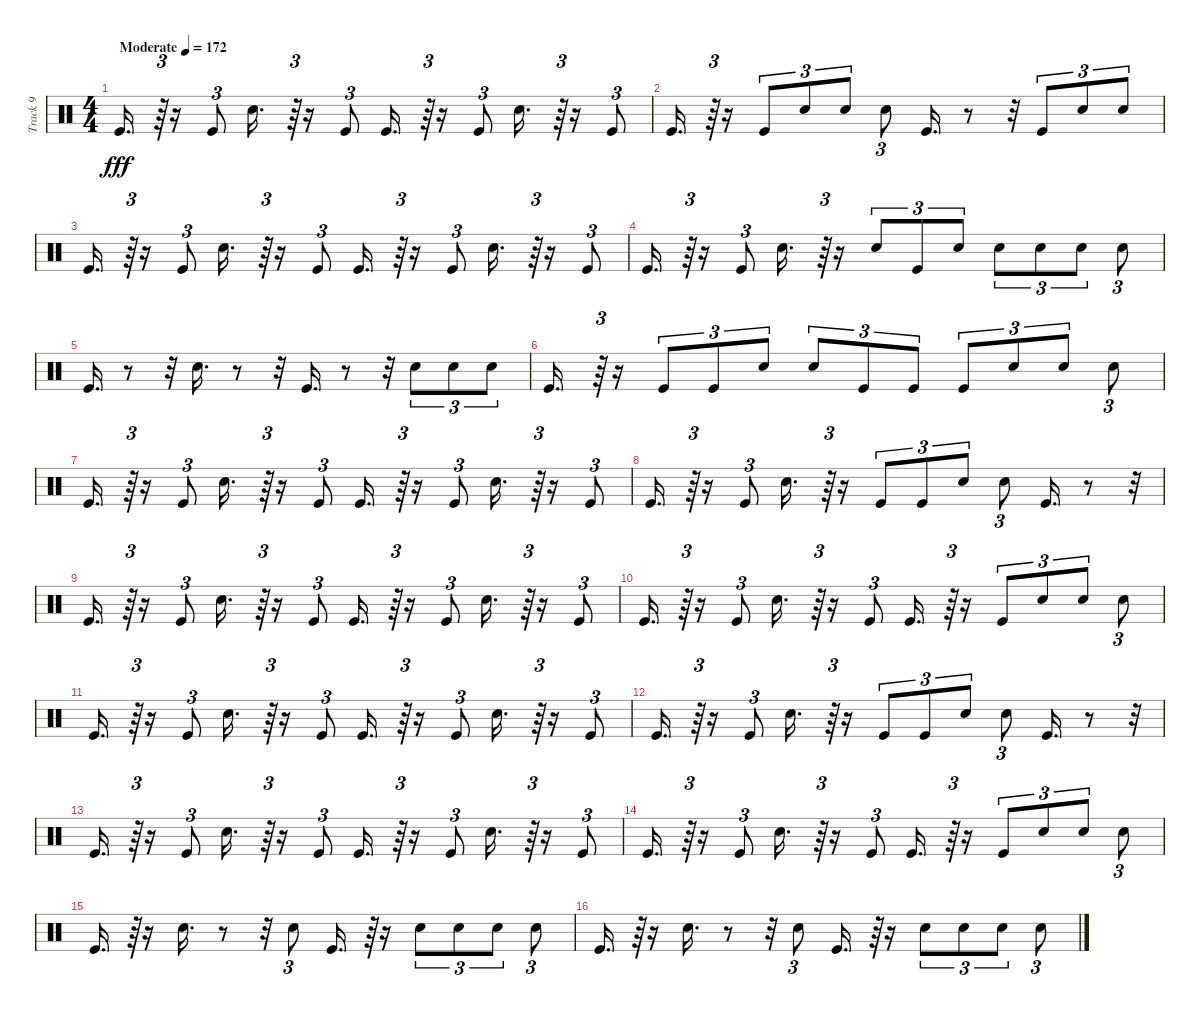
\track ("Track 9" "Track 9") {instrument percussion}
\staff {score}
\articulation defaults
\ts (4 4)
\tempo (172 "Moderate")
\clef neutral
\ks c "Kick (hit)".16{d dy fff}
r.64{tu (3 2)} r.16 "Kick (hit)".8{tu (3 2)} "Snare (hit) 2".16{d} r.64{tu (3 2)} r.16 "Kick (hit)".8{tu (3 2)} "Kick (hit)".16{d} r.64{tu (3 2)} r.16 "Kick (hit)".8{tu (3 2)} "Snare (hit) 2".16{d} r.64{tu (3 2)} r.16 "Kick (hit)".8{tu (3 2)} |
"Kick (hit)".16{d} r.64{tu (3 2)} r.16 "Kick (hit)".8{tu (3 2)} "Snare (hit) 2".8{tu (3 2)} "Snare (hit) 2".8{tu (3 2)} "Snare (hit) 2".8{tu (3 2)} "Kick (hit)".16{d} r.8 r.32 "Kick (hit)".8{tu (3 2)} "Snare (hit) 2".8{tu (3 2)} "Snare (hit) 2".8{tu (3 2)} |
"Kick (hit)".16{d} r.64{tu (3 2)} r.16 "Kick (hit)".8{tu (3 2)} "Snare (hit) 2".16{d} r.64{tu (3 2)} r.16 "Kick (hit)".8{tu (3 2)} "Kick (hit)".16{d} r.64{tu (3 2)} r.16 "Kick (hit)".8{tu (3 2)} "Snare (hit) 2".16{d} r.64{tu (3 2)} r.16 "Kick (hit)".8{tu (3 2)} |
"Kick (hit)".16{d} r.64{tu (3 2)} r.16 "Kick (hit)".8{tu (3 2)} "Snare (hit) 2".16{d} r.64{tu (3 2)} r.16 "Snare (hit) 2".8{tu (3 2)} "Kick (hit)".8{tu (3 2)} "Snare (hit) 2".8{tu (3 2)} "Snare (hit) 2".8{tu (3 2)} "Snare (hit) 2".8{tu (3 2)} "Snare (hit) 2".8{tu (3 2)} "Snare (hit) 2".8{tu (3 2)} |
"Kick (hit)".16{d} r.8 r.32 "Snare (hit) 2".16{d} r.8 r.32 "Kick (hit)".16{d} r.8 r.32 "Snare (hit) 2".8{tu (3 2)} "Snare (hit) 2".8{tu (3 2)} "Snare (hit) 2".8{tu (3 2)} |
"Kick (hit)".16{d} r.64{tu (3 2)} r.16 "Kick (hit)".8{tu (3 2)} "Kick (hit)".8{tu (3 2)} "Snare (hit) 2".8{tu (3 2)} "Snare (hit) 2".8{tu (3 2)} "Kick (hit)".8{tu (3 2)} "Kick (hit)".8{tu (3 2)} "Kick (hit)".8{tu (3 2)} "Snare (hit) 2".8{tu (3 2)} "Snare (hit) 2".8{tu (3 2)} "Snare (hit) 2".8{tu (3 2)} |
"Kick (hit)".16{d} r.64{tu (3 2)} r.16 "Kick (hit)".8{tu (3 2)} "Snare (hit) 2".16{d} r.64{tu (3 2)} r.16 "Kick (hit)".8{tu (3 2)} "Kick (hit)".16{d} r.64{tu (3 2)} r.16 "Kick (hit)".8{tu (3 2)} "Snare (hit) 2".16{d} r.64{tu (3 2)} r.16 "Kick (hit)".8{tu (3 2)} |
"Kick (hit)".16{d} r.64{tu (3 2)} r.16 "Kick (hit)".8{tu (3 2)} "Snare (hit) 2".16{d} r.64{tu (3 2)} r.16 "Kick (hit)".8{tu (3 2)} "Kick (hit)".8{tu (3 2)} "Snare (hit) 2".8{tu (3 2)} "Snare (hit) 2".8{tu (3 2)} "Kick (hit)".16{d} r.8 r.32 |
"Kick (hit)".16{d} r.64{tu (3 2)} r.16 "Kick (hit)".8{tu (3 2)} "Snare (hit) 2".16{d} r.64{tu (3 2)} r.16 "Kick (hit)".8{tu (3 2)} "Kick (hit)".16{d} r.64{tu (3 2)} r.16 "Kick (hit)".8{tu (3 2)} "Snare (hit) 2".16{d} r.64{tu (3 2)} r.16 "Kick (hit)".8{tu (3 2)} |
"Kick (hit)".16{d} r.64{tu (3 2)} r.16 "Kick (hit)".8{tu (3 2)} "Snare (hit) 2".16{d} r.64{tu (3 2)} r.16 "Kick (hit)".8{tu (3 2)} "Kick (hit)".16{d} r.64{tu (3 2)} r.16 "Kick (hit)".8{tu (3 2)} "Snare (hit) 2".8{tu (3 2)} "Snare (hit) 2".8{tu (3 2)} "Snare (hit) 2".8{tu (3 2)} |
"Kick (hit)".16{d} r.64{tu (3 2)} r.16 "Kick (hit)".8{tu (3 2)} "Snare (hit) 2".16{d} r.64{tu (3 2)} r.16 "Kick (hit)".8{tu (3 2)} "Kick (hit)".16{d} r.64{tu (3 2)} r.16 "Kick (hit)".8{tu (3 2)} "Snare (hit) 2".16{d} r.64{tu (3 2)} r.16 "Kick (hit)".8{tu (3 2)} |
"Kick (hit)".16{d} r.64{tu (3 2)} r.16 "Kick (hit)".8{tu (3 2)} "Snare (hit) 2".16{d} r.64{tu (3 2)} r.16 "Kick (hit)".8{tu (3 2)} "Kick (hit)".8{tu (3 2)} "Snare (hit) 2".8{tu (3 2)} "Snare (hit) 2".8{tu (3 2)} "Kick (hit)".16{d} r.8 r.32 |
"Kick (hit)".16{d} r.64{tu (3 2)} r.16 "Kick (hit)".8{tu (3 2)} "Snare (hit) 2".16{d} r.64{tu (3 2)} r.16 "Kick (hit)".8{tu (3 2)} "Kick (hit)".16{d} r.64{tu (3 2)} r.16 "Kick (hit)".8{tu (3 2)} "Snare (hit) 2".16{d} r.64{tu (3 2)} r.16 "Kick (hit)".8{tu (3 2)} |
"Kick (hit)".16{d} r.64{tu (3 2)} r.16 "Kick (hit)".8{tu (3 2)} "Snare (hit) 2".16{d} r.64{tu (3 2)} r.16 "Kick (hit)".8{tu (3 2)} "Kick (hit)".16{d} r.64{tu (3 2)} r.16 "Kick (hit)".8{tu (3 2)} "Snare (hit) 2".8{tu (3 2)} "Snare (hit) 2".8{tu (3 2)} "Snare (hit) 2".8{tu (3 2)} |
"Kick (hit)".16{d} r.64{tu (3 2)} r.16 "Snare (hit) 2".16{d} r.8 r.32 "Snare (hit) 2".8{tu (3 2)} "Kick (hit)".16{d} r.64{tu (3 2)} r.16 "Snare (hit) 2".8{tu (3 2)} "Snare (hit) 2".8{tu (3 2)} "Snare (hit) 2".8{tu (3 2)} "Snare (hit) 2".8{tu (3 2)} |
"Kick (hit)".16{d} r.64{tu (3 2)} r.16 "Snare (hit) 2".16{d} r.8 r.32 "Snare (hit) 2".8{tu (3 2)} "Kick (hit)".16{d} r.64{tu (3 2)} r.16 "Snare (hit) 2".8{tu (3 2)} "Snare (hit) 2".8{tu (3 2)} "Snare (hit) 2".8{tu (3 2)} "Snare (hit) 2".8{tu (3 2)}
